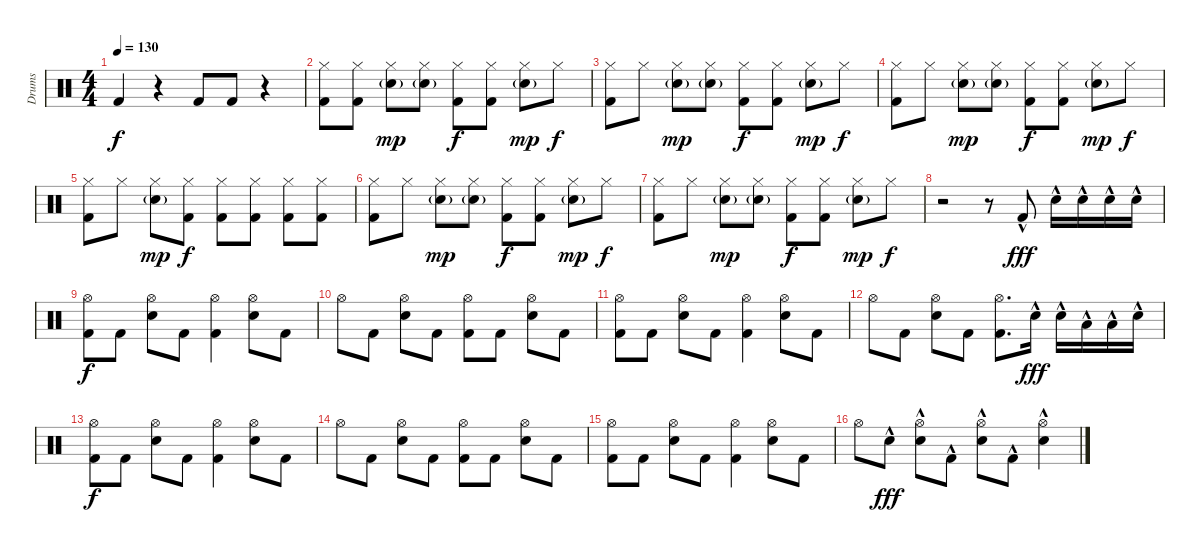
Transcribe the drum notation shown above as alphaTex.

\track ("Drums" "Drums") {instrument percussion}
\staff {score}
\articulation defaults
\ts (4 4)
\tempo 130
\clef neutral
\ks c "Kick (hit) 2".4{dy f}
r.4 "Kick (hit) 2".8 "Kick (hit) 2".8 r.4 |
("Hi-Hat (closed)" "Kick (hit) 2").8 ("Hi-Hat (closed)" "Kick (hit) 2").8 ("Hi-Hat (closed)" "Hand Clap (hit)"{g}).8{dy mp} ("Hi-Hat (closed)" "Hand Clap (hit)"{g}).8 ("Hi-Hat (closed)" "Kick (hit) 2").8{dy f} ("Hi-Hat (closed)" "Kick (hit) 2").8 ("Hi-Hat (closed)" "Hand Clap (hit)"{g}).8{dy mp} "Hi-Hat (closed)".8{dy f} |
("Hi-Hat (closed)" "Kick (hit) 2").8 "Hi-Hat (closed)".8 ("Hi-Hat (closed)" "Hand Clap (hit)"{g}).8{dy mp} ("Hi-Hat (closed)" "Hand Clap (hit)"{g}).8 ("Hi-Hat (closed)" "Kick (hit) 2").8{dy f} ("Hi-Hat (closed)" "Kick (hit) 2").8 ("Hi-Hat (closed)" "Hand Clap (hit)"{g}).8{dy mp} "Hi-Hat (closed)".8{dy f} |
("Hi-Hat (closed)" "Kick (hit) 2").8 "Hi-Hat (closed)".8 ("Hi-Hat (closed)" "Hand Clap (hit)"{g}).8{dy mp} ("Hi-Hat (closed)" "Hand Clap (hit)"{g}).8 ("Hi-Hat (closed)" "Kick (hit) 2").8{dy f} ("Hi-Hat (closed)" "Kick (hit) 2").8 ("Hi-Hat (closed)" "Hand Clap (hit)"{g}).8{dy mp} "Hi-Hat (closed)".8{dy f} |
("Hi-Hat (closed)" "Kick (hit) 2").8 "Hi-Hat (closed)".8 ("Hi-Hat (closed)" "Hand Clap (hit)"{g}).8{dy mp} ("Hi-Hat (closed)" "Kick (hit) 2").8{dy f} ("Hi-Hat (closed)" "Kick (hit) 2").8 ("Hi-Hat (closed)" "Kick (hit) 2").8 ("Hi-Hat (closed)" "Kick (hit) 2").8 ("Hi-Hat (closed)" "Kick (hit) 2").8 |
("Hi-Hat (closed)" "Kick (hit) 2").8 "Hi-Hat (closed)".8 ("Hi-Hat (closed)" "Hand Clap (hit)"{g}).8{dy mp} ("Hi-Hat (closed)" "Hand Clap (hit)"{g}).8 ("Hi-Hat (closed)" "Kick (hit) 2").8{dy f} ("Hi-Hat (closed)" "Kick (hit) 2").8 ("Hi-Hat (closed)" "Hand Clap (hit)"{g}).8{dy mp} "Hi-Hat (closed)".8{dy f} |
("Hi-Hat (closed)" "Kick (hit) 2").8 "Hi-Hat (closed)".8 ("Hi-Hat (closed)" "Hand Clap (hit)"{g}).8{dy mp} ("Hi-Hat (closed)" "Hand Clap (hit)"{g}).8 ("Hi-Hat (closed)" "Kick (hit) 2").8{dy f} ("Hi-Hat (closed)" "Kick (hit) 2").8 ("Hi-Hat (closed)" "Hand Clap (hit)"{g}).8{dy mp} "Hi-Hat (closed)".8{dy f} |
r.2 r.8 "Kick (hit) 2"{hac}.8{dy fff} "Electric Snare (hit)"{hac}.16 "Electric Snare (hit)"{hac}.16 "Electric Snare (hit)"{hac}.16 "Electric Snare (hit)"{hac}.16 |
("Hi-Hat (open)" "Kick (hit) 2").8{dy f} "Kick (hit) 2".8 ("Hi-Hat (open)" "Electric Snare (hit)").8 "Kick (hit) 2".8 ("Hi-Hat (open)" "Kick (hit) 2").4 ("Hi-Hat (open)" "Electric Snare (hit)").8 "Kick (hit) 2".8 |
"Hi-Hat (open)".8 "Kick (hit) 2".8 ("Hi-Hat (open)" "Electric Snare (hit)").8 "Kick (hit) 2".8 ("Hi-Hat (open)" "Kick (hit) 2").8 "Kick (hit) 2".8 ("Hi-Hat (open)" "Electric Snare (hit)").8 "Kick (hit) 2".8 |
("Hi-Hat (open)" "Kick (hit) 2").8 "Kick (hit) 2".8 ("Hi-Hat (open)" "Electric Snare (hit)").8 "Kick (hit) 2".8 ("Hi-Hat (open)" "Kick (hit) 2").4 ("Hi-Hat (open)" "Electric Snare (hit)").8 "Kick (hit) 2".8 |
"Hi-Hat (open)".8 "Kick (hit) 2".8 ("Hi-Hat (open)" "Electric Snare (hit)").8 "Kick (hit) 2".8 ("Hi-Hat (open)" "Kick (hit) 2").8{d} "Electric Snare (hit)"{hac}.16{dy fff} "Electric Snare (hit)"{hac}.16 "Low Floor Tom (hit)"{hac}.16 "Low Floor Tom (hit)"{hac}.16 "Electric Snare (hit)"{hac}.16 |
("Hi-Hat (open)" "Kick (hit) 2").8{dy f} "Kick (hit) 2".8 ("Hi-Hat (open)" "Snare (hit) 2").8 "Kick (hit) 2".8 ("Hi-Hat (open)" "Kick (hit) 2").4 ("Hi-Hat (open)" "Electric Snare (hit)").8 "Kick (hit) 2".8 |
"Hi-Hat (open)".8 "Kick (hit) 2".8 ("Hi-Hat (open)" "Electric Snare (hit)").8 "Kick (hit) 2".8 ("Hi-Hat (open)" "Kick (hit) 2").8 "Kick (hit) 2".8 ("Hi-Hat (open)" "Electric Snare (hit)").8 "Kick (hit) 2".8 |
("Hi-Hat (open)" "Kick (hit) 2").8 "Kick (hit) 2".8 ("Hi-Hat (open)" "Electric Snare (hit)").8 "Kick (hit) 2".8 ("Hi-Hat (open)" "Kick (hit) 2").4 ("Hi-Hat (open)" "Electric Snare (hit)").8 "Kick (hit) 2".8 |
"Hi-Hat (open)".8 "Electric Snare (hit)"{hac}.8{dy fff} ("Hi-Hat (open)" "Electric Snare (hit)"{hac}).8 "Kick (hit) 2"{hac}.8 ("Hi-Hat (open)" "Electric Snare (hit)"{hac}).8 "Kick (hit) 2"{hac}.8 ("Hi-Hat (open)" "Electric Snare (hit)"{hac}).4
